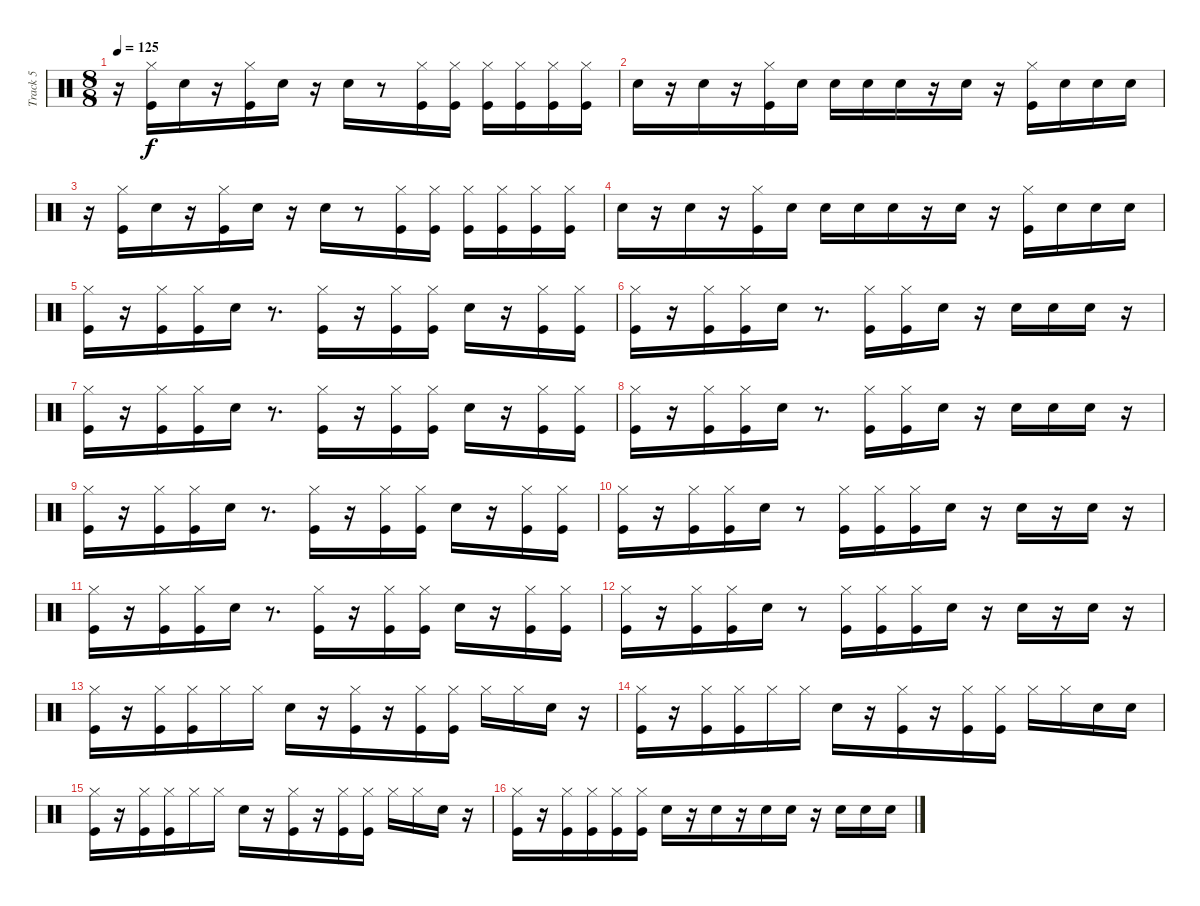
\track ("Track 5" "Track 5") {instrument percussion}
\staff {score}
\articulation defaults
\ts (8 8)
\tempo 125
\clef neutral
\ks c
r.16{dy f} ("Kick (hit)" "Hi-Hat (closed)").16 "Snare (hit) 2".16 r.16 ("Kick (hit)" "Hi-Hat (closed)").16 "Snare (hit) 2".16 r.16 "Snare (hit) 2".16 r.8 ("Kick (hit)" "Hi-Hat (closed)").16 ("Kick (hit)" "Hi-Hat (closed)").16 ("Kick (hit)" "Hi-Hat (closed)").16 ("Kick (hit)" "Hi-Hat (closed)").16 ("Kick (hit)" "Hi-Hat (closed)").16 ("Kick (hit)" "Hi-Hat (closed)").16 |
"Snare (hit) 2".16 r.16 "Snare (hit) 2".16 r.16 ("Kick (hit)" "Hi-Hat (closed)").16 "Snare (hit) 2".16 "Snare (hit) 2".16 "Snare (hit) 2".16 "Snare (hit) 2".16 r.16 "Snare (hit) 2".16 r.16 ("Kick (hit)" "Hi-Hat (closed)").16 "Snare (hit) 2".16 "Snare (hit) 2".16 "Snare (hit) 2".16 |
r.16 ("Kick (hit)" "Hi-Hat (closed)").16 "Snare (hit) 2".16 r.16 ("Kick (hit)" "Hi-Hat (closed)").16 "Snare (hit) 2".16 r.16 "Snare (hit) 2".16 r.8 ("Kick (hit)" "Hi-Hat (closed)").16 ("Kick (hit)" "Hi-Hat (closed)").16 ("Kick (hit)" "Hi-Hat (closed)").16 ("Kick (hit)" "Hi-Hat (closed)").16 ("Kick (hit)" "Hi-Hat (closed)").16 ("Kick (hit)" "Hi-Hat (closed)").16 |
"Snare (hit) 2".16 r.16 "Snare (hit) 2".16 r.16 ("Kick (hit)" "Hi-Hat (closed)").16 "Snare (hit) 2".16 "Snare (hit) 2".16 "Snare (hit) 2".16 "Snare (hit) 2".16 r.16 "Snare (hit) 2".16 r.16 ("Kick (hit)" "Hi-Hat (closed)").16 "Snare (hit) 2".16 "Snare (hit) 2".16 "Snare (hit) 2".16 |
("Kick (hit)" "Hi-Hat (closed)").16 r.16 ("Kick (hit)" "Hi-Hat (closed)").16 ("Kick (hit)" "Hi-Hat (closed)").16 "Snare (hit) 2".16 r.8{d} ("Kick (hit)" "Hi-Hat (closed)").16 r.16 ("Kick (hit)" "Hi-Hat (closed)").16 ("Kick (hit)" "Hi-Hat (closed)").16 "Snare (hit) 2".16 r.16 ("Kick (hit)" "Hi-Hat (closed)").16 ("Kick (hit)" "Hi-Hat (closed)").16 |
("Kick (hit)" "Hi-Hat (closed)").16 r.16 ("Kick (hit)" "Hi-Hat (closed)").16 ("Kick (hit)" "Hi-Hat (closed)").16 "Snare (hit) 2".16 r.8{d} ("Kick (hit)" "Hi-Hat (closed)").16 ("Kick (hit)" "Hi-Hat (closed)").16 "Snare (hit) 2".16 r.16 "Snare (hit) 2".16 "Snare (hit) 2".16 "Snare (hit) 2".16 r.16 |
("Kick (hit)" "Hi-Hat (closed)").16 r.16 ("Kick (hit)" "Hi-Hat (closed)").16 ("Kick (hit)" "Hi-Hat (closed)").16 "Snare (hit) 2".16 r.8{d} ("Kick (hit)" "Hi-Hat (closed)").16 r.16 ("Kick (hit)" "Hi-Hat (closed)").16 ("Kick (hit)" "Hi-Hat (closed)").16 "Snare (hit) 2".16 r.16 ("Kick (hit)" "Hi-Hat (closed)").16 ("Kick (hit)" "Hi-Hat (closed)").16 |
("Kick (hit)" "Hi-Hat (closed)").16 r.16 ("Kick (hit)" "Hi-Hat (closed)").16 ("Kick (hit)" "Hi-Hat (closed)").16 "Snare (hit) 2".16 r.8{d} ("Kick (hit)" "Hi-Hat (closed)").16 ("Kick (hit)" "Hi-Hat (closed)").16 "Snare (hit) 2".16 r.16 "Snare (hit) 2".16 "Snare (hit) 2".16 "Snare (hit) 2".16 r.16 |
("Kick (hit)" "Hi-Hat (closed)").16 r.16 ("Kick (hit)" "Hi-Hat (closed)").16 ("Kick (hit)" "Hi-Hat (closed)").16 "Snare (hit) 2".16 r.8{d} ("Kick (hit)" "Hi-Hat (closed)").16 r.16 ("Kick (hit)" "Hi-Hat (closed)").16 ("Kick (hit)" "Hi-Hat (closed)").16 "Snare (hit) 2".16 r.16 ("Kick (hit)" "Hi-Hat (closed)").16 ("Kick (hit)" "Hi-Hat (closed)").16 |
("Kick (hit)" "Hi-Hat (closed)").16 r.16 ("Kick (hit)" "Hi-Hat (closed)").16 ("Kick (hit)" "Hi-Hat (closed)").16 "Snare (hit) 2".16 r.8 ("Kick (hit)" "Hi-Hat (closed)").16 ("Kick (hit)" "Hi-Hat (closed)").16 ("Kick (hit)" "Hi-Hat (closed)").16 "Snare (hit) 2".16 r.16 "Snare (hit) 2".16 r.16 "Snare (hit) 2".16 r.16 |
("Kick (hit)" "Hi-Hat (closed)").16 r.16 ("Kick (hit)" "Hi-Hat (closed)").16 ("Kick (hit)" "Hi-Hat (closed)").16 "Snare (hit) 2".16 r.8{d} ("Kick (hit)" "Hi-Hat (closed)").16 r.16 ("Kick (hit)" "Hi-Hat (closed)").16 ("Kick (hit)" "Hi-Hat (closed)").16 "Snare (hit) 2".16 r.16 ("Kick (hit)" "Hi-Hat (closed)").16 ("Kick (hit)" "Hi-Hat (closed)").16 |
("Kick (hit)" "Hi-Hat (closed)").16 r.16 ("Kick (hit)" "Hi-Hat (closed)").16 ("Kick (hit)" "Hi-Hat (closed)").16 "Snare (hit) 2".16 r.8 ("Kick (hit)" "Hi-Hat (closed)").16 ("Kick (hit)" "Hi-Hat (closed)").16 ("Kick (hit)" "Hi-Hat (closed)").16 "Snare (hit) 2".16 r.16 "Snare (hit) 2".16 r.16 "Snare (hit) 2".16 r.16 |
("Kick (hit)" "Hi-Hat (closed)").16 r.16 ("Kick (hit)" "Hi-Hat (closed)").16 ("Kick (hit)" "Hi-Hat (closed)").16 "Hi-Hat (closed)".16 "Hi-Hat (closed)".16 "Snare (hit) 2".16 r.16 ("Kick (hit)" "Hi-Hat (closed)").16 r.16 ("Kick (hit)" "Hi-Hat (closed)").16 ("Kick (hit)" "Hi-Hat (closed)").16 "Hi-Hat (closed)".16 "Hi-Hat (closed)".16 "Snare (hit) 2".16 r.16 |
("Kick (hit)" "Hi-Hat (closed)").16 r.16 ("Kick (hit)" "Hi-Hat (closed)").16 ("Kick (hit)" "Hi-Hat (closed)").16 "Hi-Hat (closed)".16 "Hi-Hat (closed)".16 "Snare (hit) 2".16 r.16 ("Kick (hit)" "Hi-Hat (closed)").16 r.16 ("Kick (hit)" "Hi-Hat (closed)").16 ("Kick (hit)" "Hi-Hat (closed)").16 "Hi-Hat (closed)".16 "Hi-Hat (closed)".16 "Snare (hit) 2".16 "Snare (hit) 2".16 |
("Kick (hit)" "Hi-Hat (closed)").16 r.16 ("Kick (hit)" "Hi-Hat (closed)").16 ("Kick (hit)" "Hi-Hat (closed)").16 "Hi-Hat (closed)".16 "Hi-Hat (closed)".16 "Snare (hit) 2".16 r.16 ("Kick (hit)" "Hi-Hat (closed)").16 r.16 ("Kick (hit)" "Hi-Hat (closed)").16 ("Kick (hit)" "Hi-Hat (closed)").16 "Hi-Hat (closed)".16 "Hi-Hat (closed)".16 "Snare (hit) 2".16 r.16 |
("Kick (hit)" "Hi-Hat (closed)").16 r.16 ("Kick (hit)" "Hi-Hat (closed)").16 ("Kick (hit)" "Hi-Hat (closed)").16 ("Kick (hit)" "Hi-Hat (closed)").16 ("Kick (hit)" "Hi-Hat (closed)").16 "Snare (hit) 2".16 r.16 "Snare (hit) 2".16 r.16 "Snare (hit) 2".16 "Snare (hit) 2".16 r.16 "Snare (hit) 2".16 "Snare (hit) 2".16 "Snare (hit) 2".16
